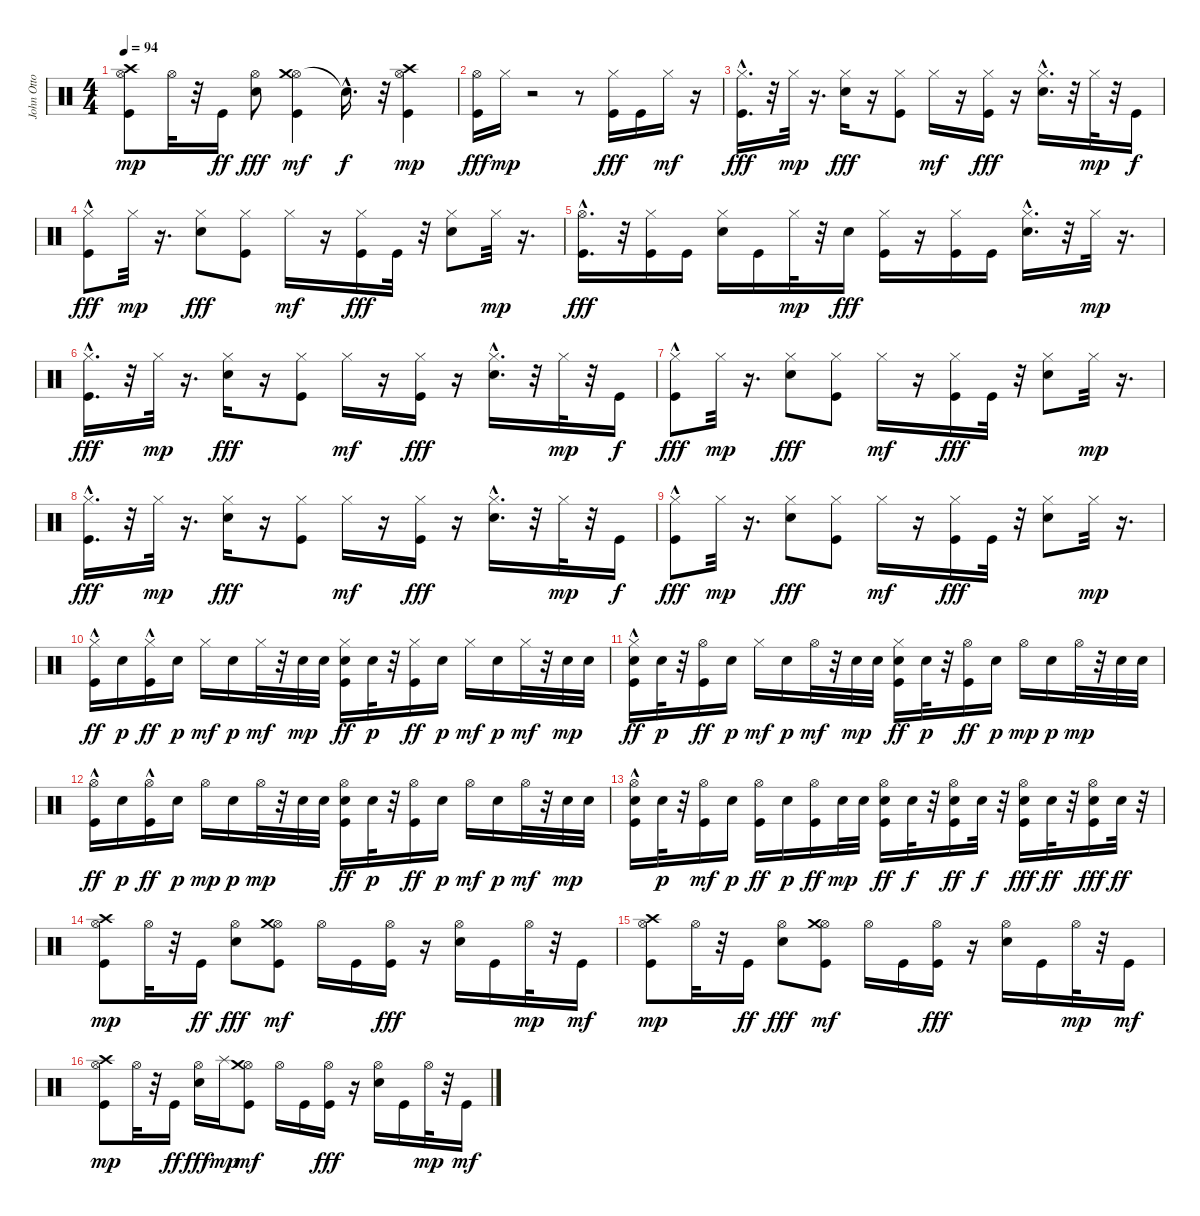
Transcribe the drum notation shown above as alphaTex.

\track ("John Otto" "John Otto") {instrument percussion}
\staff {score}
\articulation defaults
\ts (4 4)
\tempo 94
\clef neutral
\ks c
("Hi-Hat (open)" "Kick (hit)" "Crash high (hit)").8{dy mp} "Hi-Hat (open)".32 r.32 "Kick (hit)".16{dy ff} ("Hi-Hat (open)" "Electric Snare (hit)").8{dy fff} ("Hi-Hat (open)" "Kick (hit)" "Crash medium (hit)").4{dy mf} "Snare (hit)"{hac t}.16{d dy f} r.32 ("Hi-Hat (open)" "Kick (hit)" "Crash high (hit)").4{dy mp} |
("Hi-Hat (open)" "Kick (hit)").16{dy fff} "Hi-Hat (closed)".16{dy mp} r.2 r.8 ("Hi-Hat (closed)" "Kick (hit)").16{dy fff} "Kick (hit)".16 "Hi-Hat (closed)".16{dy mf} r.16 |
("Hi-Hat (closed)"{hac} "Kick (hit)"{hac}).16{d dy fff} r.32 "Hi-Hat (closed)".32{dy mp} r.16{d} ("Hi-Hat (closed)" "Electric Snare (hit)").16{dy fff} r.16 ("Hi-Hat (closed)" "Kick (hit)").8 "Hi-Hat (closed)".16{dy mf} r.16 ("Hi-Hat (closed)" "Kick (hit)").16{dy fff} r.16 ("Hi-Hat (closed)" "Electric Snare (hit)"{hac}).16{d} r.32 "Hi-Hat (closed)".32{dy mp} r.32 "Kick (hit)".16{dy f} |
("Hi-Hat (closed)"{hac} "Kick (hit)").8{dy fff} "Hi-Hat (closed)".32{dy mp} r.16{d} ("Hi-Hat (closed)" "Electric Snare (hit)").8{dy fff} ("Hi-Hat (closed)" "Kick (hit)").8 "Hi-Hat (closed)".16{dy mf} r.16 ("Hi-Hat (closed)" "Kick (hit)").16{dy fff} "Kick (hit)".32 r.32 ("Hi-Hat (closed)" "Electric Snare (hit)").8 "Hi-Hat (closed)".32{dy mp} r.16{d} |
("Hi-Hat (open)"{hac} "Kick (hit)"{hac}).16{d dy fff} r.32 ("Hi-Hat (closed)" "Kick (hit)").16 "Kick (hit)".16 ("Hi-Hat (closed)" "Electric Snare (hit)").16 "Kick (hit)".16 "Hi-Hat (closed)".32{dy mp} r.32 "Electric Snare (hit)".16{dy fff} ("Hi-Hat (closed)" "Kick (hit)").16 r.16 ("Hi-Hat (closed)" "Kick (hit)").16 "Kick (hit)".16 ("Hi-Hat (closed)" "Electric Snare (hit)"{hac}).16{d} r.32 "Hi-Hat (closed)".32{dy mp} r.16{d} |
("Hi-Hat (closed)"{hac} "Kick (hit)"{hac}).16{d dy fff} r.32 "Hi-Hat (closed)".32{dy mp} r.16{d} ("Hi-Hat (closed)" "Electric Snare (hit)").16{dy fff} r.16 ("Hi-Hat (closed)" "Kick (hit)").8 "Hi-Hat (closed)".16{dy mf} r.16 ("Hi-Hat (closed)" "Kick (hit)").16{dy fff} r.16 ("Hi-Hat (closed)" "Electric Snare (hit)"{hac}).16{d} r.32 "Hi-Hat (closed)".32{dy mp} r.32 "Kick (hit)".16{dy f} |
("Hi-Hat (closed)"{hac} "Kick (hit)").8{dy fff} "Hi-Hat (closed)".32{dy mp} r.16{d} ("Hi-Hat (closed)" "Electric Snare (hit)").8{dy fff} ("Hi-Hat (closed)" "Kick (hit)").8 "Hi-Hat (closed)".16{dy mf} r.16 ("Hi-Hat (closed)" "Kick (hit)").16{dy fff} "Kick (hit)".32 r.32 ("Hi-Hat (closed)" "Electric Snare (hit)").8 "Hi-Hat (closed)".32{dy mp} r.16{d} |
("Hi-Hat (closed)"{hac} "Kick (hit)"{hac}).16{d dy fff} r.32 "Hi-Hat (closed)".32{dy mp} r.16{d} ("Hi-Hat (closed)" "Electric Snare (hit)").16{dy fff} r.16 ("Hi-Hat (closed)" "Kick (hit)").8 "Hi-Hat (closed)".16{dy mf} r.16 ("Hi-Hat (closed)" "Kick (hit)").16{dy fff} r.16 ("Hi-Hat (closed)" "Electric Snare (hit)"{hac}).16{d} r.32 "Hi-Hat (closed)".32{dy mp} r.32 "Kick (hit)".16{dy f} |
("Hi-Hat (closed)"{hac} "Kick (hit)").8{dy fff} "Hi-Hat (closed)".32{dy mp} r.16{d} ("Hi-Hat (closed)" "Electric Snare (hit)").8{dy fff} ("Hi-Hat (closed)" "Kick (hit)").8 "Hi-Hat (closed)".16{dy mf} r.16 ("Hi-Hat (closed)" "Kick (hit)").16{dy fff} "Kick (hit)".32 r.32 ("Hi-Hat (closed)" "Electric Snare (hit)").8 "Hi-Hat (closed)".32{dy mp} r.16{d} |
("Hi-Hat (closed)"{hac} "Kick (hit)").16{dy ff} "Snare (hit) 2".16{dy p} ("Hi-Hat (closed)" "Kick (hit)"{hac}).16{dy ff} "Snare (hit) 2".16{dy p} "Hi-Hat (closed)".16{dy mf} "Snare (hit) 2".16{dy p} "Hi-Hat (closed)".32{dy mf} r.32 "Snare (hit) 2".32{dy mp} "Snare (hit) 2".32 ("Hi-Hat (closed)" "Snare (hit) 2" "Kick (hit)").16{dy ff} "Snare (hit) 2".32{dy p} r.32 ("Hi-Hat (closed)" "Kick (hit)").16{dy ff} "Snare (hit) 2".16{dy p} "Hi-Hat (closed)".16{dy mf} "Snare (hit) 2".16{dy p} "Hi-Hat (closed)".32{dy mf} r.32 "Snare (hit) 2".32{dy mp} "Snare (hit) 2".32 |
("Hi-Hat (closed)"{hac} "Snare (hit) 2" "Kick (hit)").16{dy ff} "Snare (hit) 2".32{dy p} r.32 ("Hi-Hat (open)" "Kick (hit)").16{dy ff} "Snare (hit) 2".16{dy p} "Hi-Hat (closed)".16{dy mf} "Snare (hit) 2".16{dy p} "Hi-Hat (open)".32{dy mf} r.32 "Snare (hit) 2".32{dy mp} "Snare (hit) 2".32 ("Hi-Hat (closed)" "Snare (hit) 2" "Kick (hit)").16{dy ff} "Snare (hit) 2".32{dy p} r.32 ("Hi-Hat (open)" "Kick (hit)").16{dy ff} "Snare (hit) 2".16{dy p} "Hi-Hat (open)".16{dy mp} "Snare (hit) 2".16{dy p} "Hi-Hat (open)".32{dy mp} r.32 "Snare (hit) 2".32 "Snare (hit) 2".32 |
("Hi-Hat (open)"{hac} "Kick (hit)").16{dy ff} "Snare (hit) 2".16{dy p} ("Hi-Hat (open)" "Kick (hit)"{hac}).16{dy ff} "Snare (hit) 2".16{dy p} "Hi-Hat (open)".16{dy mp} "Snare (hit) 2".16{dy p} "Hi-Hat (open)".32{dy mp} r.32 "Snare (hit) 2".32 "Snare (hit) 2".32 ("Hi-Hat (open)" "Snare (hit) 2" "Kick (hit)").16{dy ff} "Snare (hit) 2".32{dy p} r.32 ("Hi-Hat (open)" "Kick (hit)").16{dy ff} "Snare (hit) 2".16{dy p} "Hi-Hat (open)".16{dy mf} "Snare (hit) 2".16{dy p} "Hi-Hat (open)".32{dy mf} r.32 "Snare (hit) 2".32{dy mp} "Snare (hit) 2".32 |
("Hi-Hat (open)"{hac} "Snare (hit) 2" "Kick (hit)").16 "Snare (hit) 2".32{dy p} r.32 ("Hi-Hat (open)" "Kick (hit)").16{dy mf} "Snare (hit) 2".16{dy p} ("Hi-Hat (open)" "Kick (hit)").16{dy ff} "Snare (hit) 2".16{dy p} ("Hi-Hat (open)" "Kick (hit)").16{dy ff} "Snare (hit) 2".32{dy mp} "Snare (hit) 2".32 ("Hi-Hat (open)" "Snare (hit) 2" "Kick (hit)").16{dy ff} "Electric Snare (hit)".32{dy f} r.32 ("Hi-Hat (open)" "Electric Snare (hit)" "Kick (hit)").16{dy ff} "Electric Snare (hit)".32{dy f} r.32 ("Hi-Hat (open)" "Electric Snare (hit)" "Kick (hit)").16{dy fff} "Electric Snare (hit)".32{dy ff} r.32 ("Hi-Hat (open)" "Electric Snare (hit)" "Kick (hit)").16{dy fff} "Electric Snare (hit)".32{dy ff} r.32 |
("Hi-Hat (open)" "Kick (hit)" "Crash high (hit)").8{dy mp} "Hi-Hat (open)".32 r.32 "Kick (hit)".16{dy ff} ("Hi-Hat (open)" "Electric Snare (hit)").8{dy fff} ("Hi-Hat (open)" "Kick (hit)" "Crash medium (hit)").8{dy mf} "Hi-Hat (open)".16 "Kick (hit)".16 ("Hi-Hat (open)" "Kick (hit)").16{dy fff} r.16 ("Hi-Hat (open)" "Electric Snare (hit)").16 "Kick (hit)".16 "Hi-Hat (open)".32{dy mp} r.32 "Kick (hit)".16{dy mf} |
("Hi-Hat (open)" "Kick (hit)" "Crash high (hit)").8{dy mp} "Hi-Hat (open)".32 r.32 "Kick (hit)".16{dy ff} ("Hi-Hat (open)" "Electric Snare (hit)").8{dy fff} ("Hi-Hat (open)" "Kick (hit)" "Crash medium (hit)").8{dy mf} "Hi-Hat (open)".16 "Kick (hit)".16 ("Hi-Hat (open)" "Kick (hit)").16{dy fff} r.16 ("Hi-Hat (open)" "Electric Snare (hit)").16 "Kick (hit)".16 "Hi-Hat (open)".32{dy mp} r.32 "Kick (hit)".16{dy mf} |
("Hi-Hat (open)" "Kick (hit)" "Crash high (hit)").8{dy mp} "Hi-Hat (open)".32 r.32 "Kick (hit)".16{dy ff} ("Hi-Hat (open)" "Electric Snare (hit)").16{dy fff} "Splash (hit)".16{dy mp} ("Hi-Hat (open)" "Kick (hit)" "Crash medium (hit)").8{dy mf} "Hi-Hat (open)".16 "Kick (hit)".16 ("Hi-Hat (open)" "Kick (hit)").16{dy fff} r.16 ("Hi-Hat (open)" "Electric Snare (hit)").16 "Kick (hit)".16 "Hi-Hat (open)".32{dy mp} r.32 "Kick (hit)".16{dy mf}
